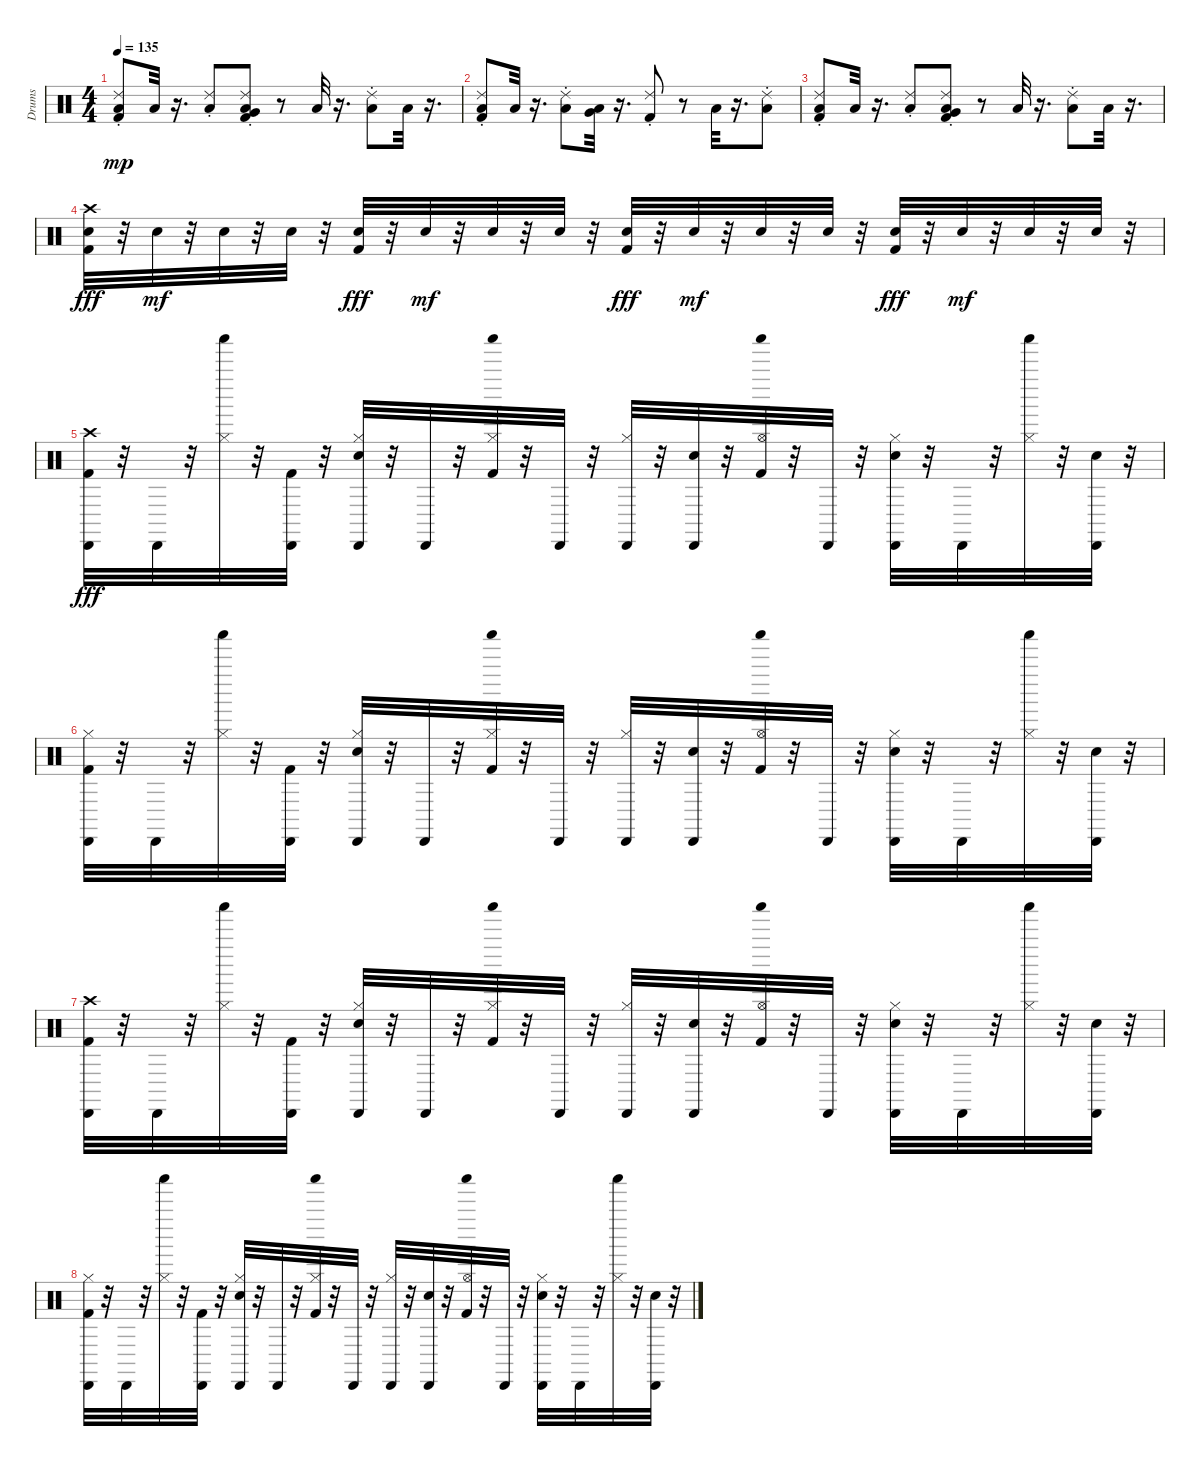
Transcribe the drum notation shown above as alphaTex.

\track ("Drums" "Drums") {instrument percussion}
\staff {score}
\articulation defaults
\ts (4 4)
\tempo 135
\clef neutral
\ks c
("Kick (hit) 2" "Low Floor Tom (hit)" "Ride (choke) 2").8{dy mp} "Low Floor Tom (hit)".32 r.16{d} ("Ride (choke) 2" "Low Tom (hit)").8 ("Kick (hit) 2" "Ride (choke) 2" "Very Low Tom (hit)" "Low Floor Tom (hit)").8 r.8 "Low Floor Tom (hit)".32 r.16{d} ("Ride (choke) 2" "Low Tom (hit)").8 "Low Floor Tom (hit)".32 r.16{d} |
("Kick (hit) 2" "Ride (choke) 2" "Low Floor Tom (hit)").8 "Low Floor Tom (hit)".32 r.16{d} ("Ride (choke) 2" "Low Tom (hit)").8 ("Very Low Tom (hit)" "Low Floor Tom (hit)").32 r.16{d} ("Kick (hit) 2" "Ride (choke) 2").8 r.8 "Low Tom (hit)".32 r.16{d} ("Ride (choke) 2" "Low Floor Tom (hit)").8 |
("Kick (hit) 2" "Ride (choke) 2" "Low Floor Tom (hit)").8 "Low Floor Tom (hit)".32 r.16{d} ("Ride (choke) 2" "Low Tom (hit)").8 ("Kick (hit) 2" "Ride (choke) 2" "Very Low Tom (hit)" "Low Floor Tom (hit)").8 r.8 "Low Floor Tom (hit)".32 r.16{d} ("Ride (choke) 2" "Low Tom (hit)").8 "Low Floor Tom (hit)".32 r.16{d} |
("Snare (hit) 2" "Kick (hit) 2" "Crash high (hit)").32{dy fff} r.32 "Snare (hit) 2".32{dy mf} r.32 "Snare (hit) 2".32 r.32 "Snare (hit) 2".32 r.32 ("Kick (hit) 2" "Snare (hit) 2").32{dy fff} r.32 "Snare (hit) 2".32{dy mf} r.32 "Snare (hit) 2".32 r.32 "Snare (hit) 2".32 r.32 ("Kick (hit) 2" "Snare (hit) 2").32{dy fff} r.32 "Snare (hit) 2".32{dy mf} r.32 "Snare (hit) 2".32 r.32 "Snare (hit) 2".32 r.32 ("Kick (hit) 2" "Snare (hit) 2").32{dy fff} r.32 "Snare (hit) 2".32{dy mf} r.32 "Snare (hit) 2".32 r.32 "Snare (hit) 2".32 r.32 |
("Crash high (hit)" "Kick (hit) 2" "Cabasa (hit)").32{dy fff} r.32 "Cabasa (hit)".32 r.32 ("Shaker (hit)" "Hi-Hat (closed)").32 r.32 ("Kick (hit) 2" "Cabasa (hit)").32 r.32 ("Snare (hit) 2" "Hi-Hat (closed)" "Cabasa (hit)").32 r.32 "Cabasa (hit)".32 r.32 ("Kick (hit) 2" "Shaker (hit)" "Hi-Hat (closed)").32 r.32 "Cabasa (hit)".32 r.32 ("Hi-Hat (closed)" "Cabasa (hit)").32 r.32 ("Snare (hit) 2" "Cabasa (hit)").32 r.32 ("Kick (hit) 2" "Shaker (hit)" "Hi-Hat (open)").32 r.32 "Cabasa (hit)".32 r.32 ("Snare (hit) 2" "Hi-Hat (closed)" "Cabasa (hit)").32 r.32 "Cabasa (hit)".32 r.32 ("Shaker (hit)" "Hi-Hat (closed)").32 r.32 ("Snare (hit) 2" "Cabasa (hit)").32 r.32 |
("Hi-Hat (closed)" "Kick (hit) 2" "Cabasa (hit)").32 r.32 "Cabasa (hit)".32 r.32 ("Shaker (hit)" "Hi-Hat (closed)").32 r.32 ("Kick (hit) 2" "Cabasa (hit)").32 r.32 ("Snare (hit) 2" "Hi-Hat (closed)" "Cabasa (hit)").32 r.32 "Cabasa (hit)".32 r.32 ("Kick (hit) 2" "Shaker (hit)" "Hi-Hat (closed)").32 r.32 "Cabasa (hit)".32 r.32 ("Hi-Hat (closed)" "Cabasa (hit)").32 r.32 ("Snare (hit) 2" "Cabasa (hit)").32 r.32 ("Kick (hit) 2" "Shaker (hit)" "Hi-Hat (open)").32 r.32 "Cabasa (hit)".32 r.32 ("Snare (hit) 2" "Hi-Hat (closed)" "Cabasa (hit)").32 r.32 "Cabasa (hit)".32 r.32 ("Shaker (hit)" "Hi-Hat (closed)").32 r.32 ("Snare (hit) 2" "Cabasa (hit)").32 r.32 |
("Crash high (hit)" "Kick (hit) 2" "Cabasa (hit)").32 r.32 "Cabasa (hit)".32 r.32 ("Shaker (hit)" "Hi-Hat (closed)").32 r.32 ("Kick (hit) 2" "Cabasa (hit)").32 r.32 ("Snare (hit) 2" "Hi-Hat (closed)" "Cabasa (hit)").32 r.32 "Cabasa (hit)".32 r.32 ("Kick (hit) 2" "Shaker (hit)" "Hi-Hat (closed)").32 r.32 "Cabasa (hit)".32 r.32 ("Hi-Hat (closed)" "Cabasa (hit)").32 r.32 ("Snare (hit) 2" "Cabasa (hit)").32 r.32 ("Kick (hit) 2" "Shaker (hit)" "Hi-Hat (open)").32 r.32 "Cabasa (hit)".32 r.32 ("Snare (hit) 2" "Hi-Hat (closed)" "Cabasa (hit)").32 r.32 "Cabasa (hit)".32 r.32 ("Shaker (hit)" "Hi-Hat (closed)").32 r.32 ("Snare (hit) 2" "Cabasa (hit)").32 r.32 |
("Hi-Hat (closed)" "Kick (hit) 2" "Cabasa (hit)").32 r.32 "Cabasa (hit)".32 r.32 ("Shaker (hit)" "Hi-Hat (closed)").32 r.32 ("Kick (hit) 2" "Cabasa (hit)").32 r.32 ("Snare (hit) 2" "Hi-Hat (closed)" "Cabasa (hit)").32 r.32 "Cabasa (hit)".32 r.32 ("Kick (hit) 2" "Shaker (hit)" "Hi-Hat (closed)").32 r.32 "Cabasa (hit)".32 r.32 ("Hi-Hat (closed)" "Cabasa (hit)").32 r.32 ("Snare (hit) 2" "Cabasa (hit)").32 r.32 ("Kick (hit) 2" "Shaker (hit)" "Hi-Hat (open)").32 r.32 "Cabasa (hit)".32 r.32 ("Snare (hit) 2" "Hi-Hat (closed)" "Cabasa (hit)").32 r.32 "Cabasa (hit)".32 r.32 ("Shaker (hit)" "Hi-Hat (closed)").32 r.32 ("Snare (hit) 2" "Cabasa (hit)").32 r.32
